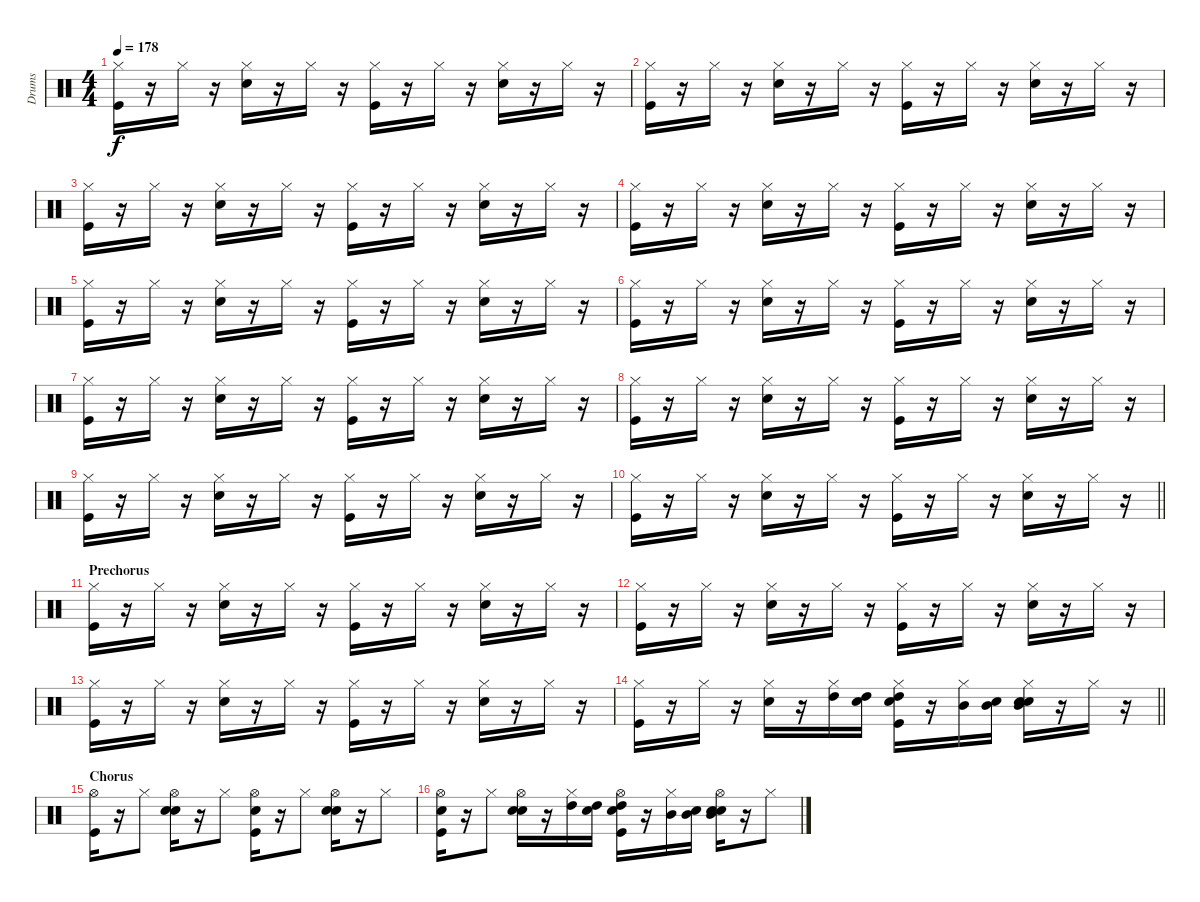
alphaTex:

\track ("Drums               " "Drums     ") {instrument percussion}
\staff {score}
\articulation defaults
\ts (4 4)
\tempo 178
\clef neutral
\ks c
("Kick (hit)" "Hi-Hat (closed)").16{dy f} r.16 "Hi-Hat (closed)".16 r.16 ("Snare (hit) 2" "Hi-Hat (closed)").16 r.16 "Hi-Hat (closed)".16 r.16 ("Kick (hit)" "Hi-Hat (closed)").16 r.16 "Hi-Hat (closed)".16 r.16 ("Snare (hit) 2" "Hi-Hat (closed)").16 r.16 "Hi-Hat (closed)".16 r.16 |
("Kick (hit)" "Hi-Hat (closed)").16 r.16 "Hi-Hat (closed)".16 r.16 ("Snare (hit) 2" "Hi-Hat (closed)").16 r.16 "Hi-Hat (closed)".16 r.16 ("Kick (hit)" "Hi-Hat (closed)").16 r.16 "Hi-Hat (closed)".16 r.16 ("Snare (hit) 2" "Hi-Hat (closed)").16 r.16 "Hi-Hat (closed)".16 r.16 |
("Kick (hit)" "Hi-Hat (closed)").16 r.16 "Hi-Hat (closed)".16 r.16 ("Snare (hit) 2" "Hi-Hat (closed)").16 r.16 "Hi-Hat (closed)".16 r.16 ("Kick (hit)" "Hi-Hat (closed)").16 r.16 "Hi-Hat (closed)".16 r.16 ("Snare (hit) 2" "Hi-Hat (closed)").16 r.16 "Hi-Hat (closed)".16 r.16 |
("Kick (hit)" "Hi-Hat (closed)").16 r.16 "Hi-Hat (closed)".16 r.16 ("Snare (hit) 2" "Hi-Hat (closed)").16 r.16 "Hi-Hat (closed)".16 r.16 ("Kick (hit)" "Hi-Hat (closed)").16 r.16 "Hi-Hat (closed)".16 r.16 ("Snare (hit) 2" "Hi-Hat (closed)").16 r.16 "Hi-Hat (closed)".16 r.16 |
("Kick (hit)" "Hi-Hat (closed)").16 r.16 "Hi-Hat (closed)".16 r.16 ("Snare (hit) 2" "Hi-Hat (closed)").16 r.16 "Hi-Hat (closed)".16 r.16 ("Kick (hit)" "Hi-Hat (closed)").16 r.16 "Hi-Hat (closed)".16 r.16 ("Snare (hit) 2" "Hi-Hat (closed)").16 r.16 "Hi-Hat (closed)".16 r.16 |
("Kick (hit)" "Hi-Hat (closed)").16 r.16 "Hi-Hat (closed)".16 r.16 ("Snare (hit) 2" "Hi-Hat (closed)").16 r.16 "Hi-Hat (closed)".16 r.16 ("Kick (hit)" "Hi-Hat (closed)").16 r.16 "Hi-Hat (closed)".16 r.16 ("Snare (hit) 2" "Hi-Hat (closed)").16 r.16 "Hi-Hat (closed)".16 r.16 |
("Kick (hit)" "Hi-Hat (closed)").16 r.16 "Hi-Hat (closed)".16 r.16 ("Snare (hit) 2" "Hi-Hat (closed)").16 r.16 "Hi-Hat (closed)".16 r.16 ("Kick (hit)" "Hi-Hat (closed)").16 r.16 "Hi-Hat (closed)".16 r.16 ("Snare (hit) 2" "Hi-Hat (closed)").16 r.16 "Hi-Hat (closed)".16 r.16 |
("Kick (hit)" "Hi-Hat (closed)").16 r.16 "Hi-Hat (closed)".16 r.16 ("Snare (hit) 2" "Hi-Hat (closed)").16 r.16 "Hi-Hat (closed)".16 r.16 ("Kick (hit)" "Hi-Hat (closed)").16 r.16 "Hi-Hat (closed)".16 r.16 ("Snare (hit) 2" "Hi-Hat (closed)").16 r.16 "Hi-Hat (closed)".16 r.16 |
("Kick (hit)" "Hi-Hat (closed)").16 r.16 "Hi-Hat (closed)".16 r.16 ("Snare (hit) 2" "Hi-Hat (closed)").16 r.16 "Hi-Hat (closed)".16 r.16 ("Kick (hit)" "Hi-Hat (closed)").16 r.16 "Hi-Hat (closed)".16 r.16 ("Snare (hit) 2" "Hi-Hat (closed)").16 r.16 "Hi-Hat (closed)".16 r.16 |
\barLineRight lightlight
("Kick (hit)" "Hi-Hat (closed)").16 r.16 "Hi-Hat (closed)".16 r.16 ("Snare (hit) 2" "Hi-Hat (closed)").16 r.16 "Hi-Hat (closed)".16 r.16 ("Kick (hit)" "Hi-Hat (closed)").16 r.16 "Hi-Hat (closed)".16 r.16 ("Snare (hit) 2" "Hi-Hat (closed)").16 r.16 "Hi-Hat (closed)".16 r.16 |
\section ("" "Prechorus")
("Kick (hit)" "Hi-Hat (closed)").16 r.16 "Hi-Hat (closed)".16 r.16 ("Snare (hit) 2" "Hi-Hat (closed)").16 r.16 "Hi-Hat (closed)".16 r.16 ("Kick (hit)" "Hi-Hat (closed)").16 r.16 "Hi-Hat (closed)".16 r.16 ("Snare (hit) 2" "Hi-Hat (closed)").16 r.16 "Hi-Hat (closed)".16 r.16 |
("Kick (hit)" "Hi-Hat (closed)").16 r.16 "Hi-Hat (closed)".16 r.16 ("Snare (hit) 2" "Hi-Hat (closed)").16 r.16 "Hi-Hat (closed)".16 r.16 ("Kick (hit)" "Hi-Hat (closed)").16 r.16 "Hi-Hat (closed)".16 r.16 ("Snare (hit) 2" "Hi-Hat (closed)").16 r.16 "Hi-Hat (closed)".16 r.16 |
("Kick (hit)" "Hi-Hat (closed)").16 r.16 "Hi-Hat (closed)".16 r.16 ("Snare (hit) 2" "Hi-Hat (closed)").16 r.16 "Hi-Hat (closed)".16 r.16 ("Kick (hit)" "Hi-Hat (closed)").16 r.16 "Hi-Hat (closed)".16 r.16 ("Snare (hit) 2" "Hi-Hat (closed)").16 r.16 "Hi-Hat (closed)".16 r.16 |
\barLineRight lightlight
("Kick (hit)" "Hi-Hat (closed)").16 r.16 "Hi-Hat (closed)".16 r.16 ("Snare (hit) 2" "Hi-Hat (closed)").16 r.16 ("Hi-Hat (closed)" "High Tom (hit)").16 ("Snare (hit)" "High Tom (hit)").16 ("Snare (hit)" "Kick (hit)" "Hi-Hat (closed)" "High Tom (hit)").16 r.16 ("Hi-Hat (closed)" "Mid Tom (hit)").16 ("Snare (hit)" "Mid Tom (hit)").16 ("Snare (hit)" "Snare (hit) 2" "Hi-Hat (closed)" "Mid Tom (hit)").16 r.16 "Hi-Hat (closed)".16 r.16 |
\section ("" "Chorus")
("Kick (hit)" "Hi-Hat (open)").16 r.16 "Hi-Hat (closed)".8 ("Snare (hit)" "Snare (hit) 2" "Hi-Hat (open)").16 r.16 "Hi-Hat (closed)".8 ("Snare (hit)" "Kick (hit)" "Hi-Hat (open)").16 r.16 "Hi-Hat (closed)".8 ("Snare (hit)" "Snare (hit) 2" "Hi-Hat (open)").16 r.16 "Hi-Hat (closed)".8 |
("Snare (hit)" "Kick (hit)" "Hi-Hat (open)").16 r.16 "Hi-Hat (closed)".8 ("Snare (hit)" "Snare (hit) 2" "Hi-Hat (open)").16 r.16 ("High Tom (hit)" "Hi-Hat (closed)").16 ("Snare (hit)" "High Tom (hit)").16 ("Snare (hit)" "Kick (hit)" "High Tom (hit)" "Hi-Hat (open)").16 r.16 ("Mid Tom (hit)" "Hi-Hat (closed)").16 ("Snare (hit)" "Mid Tom (hit)").16 ("Snare (hit)" "Snare (hit) 2" "Mid Tom (hit)" "Hi-Hat (open)").16 r.16 "Hi-Hat (closed)".8
